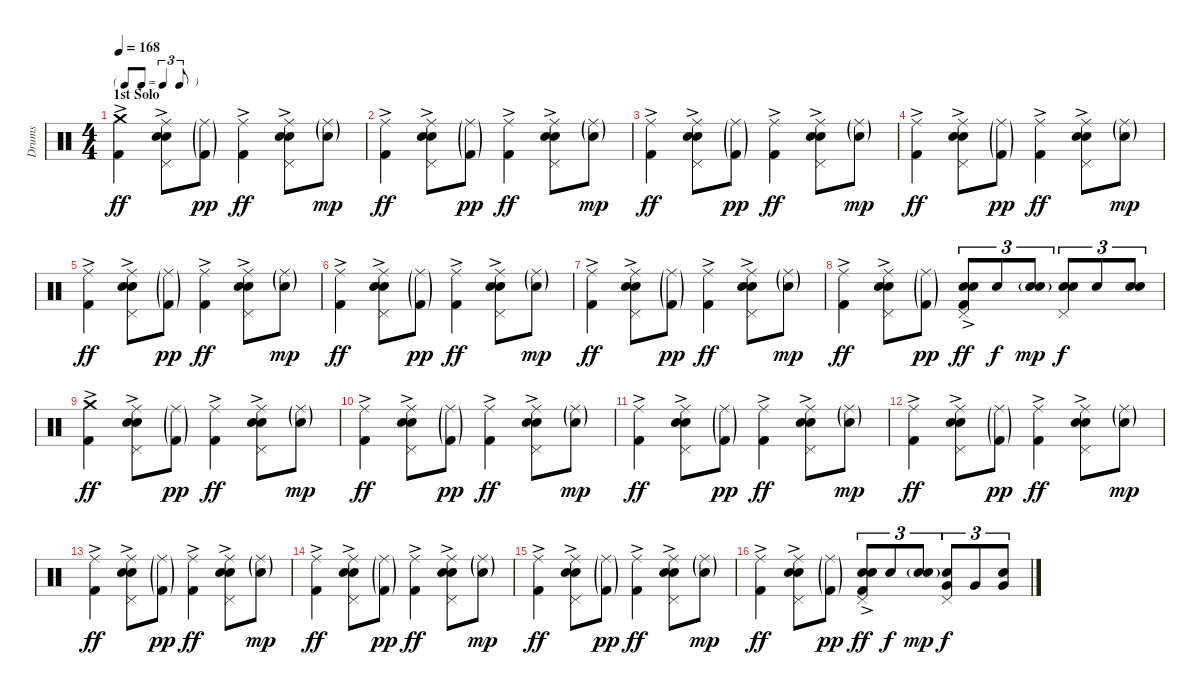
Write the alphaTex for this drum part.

\track ("Drums" "Drums") {instrument percussion}
\staff {score}
\articulation defaults
\ts (4 4)
\tf triplet8th
\section ("" "1st Solo")
\tempo 168
\clef neutral
\ks c
("Crash medium (hit)" "Kick (hit) 2"{ac}).4{dy ff} ("Ride (middle)" "Pedal Hi-Hat (hit)" "Electric Snare (hit)"{ac} "Snare (hit) 2").8 ("Ride (middle)"{g} "Kick (hit) 2"{g}).8{dy pp} ("Ride (middle)" "Kick (hit) 2"{ac}).4{dy ff} ("Ride (middle)" "Pedal Hi-Hat (hit)" "Electric Snare (hit)"{ac} "Snare (hit) 2").8 ("Ride (middle)"{g} "Snare (hit) 2"{g}).8{dy mp} |
("Ride (middle)" "Kick (hit) 2"{ac}).4{dy ff} ("Ride (middle)" "Pedal Hi-Hat (hit)" "Electric Snare (hit)"{ac} "Snare (hit) 2").8 ("Ride (middle)"{g} "Kick (hit) 2"{g}).8{dy pp} ("Ride (middle)" "Kick (hit) 2"{ac}).4{dy ff} ("Ride (middle)" "Pedal Hi-Hat (hit)" "Electric Snare (hit)"{ac} "Snare (hit) 2").8 ("Ride (middle)"{g} "Snare (hit) 2"{g}).8{dy mp} |
("Ride (middle)" "Kick (hit) 2"{ac}).4{dy ff} ("Ride (middle)" "Pedal Hi-Hat (hit)" "Electric Snare (hit)"{ac} "Snare (hit) 2").8 ("Ride (middle)"{g} "Kick (hit) 2"{g}).8{dy pp} ("Ride (middle)" "Kick (hit) 2"{ac}).4{dy ff} ("Ride (middle)" "Pedal Hi-Hat (hit)" "Electric Snare (hit)"{ac} "Snare (hit) 2").8 ("Ride (middle)"{g} "Snare (hit) 2"{g}).8{dy mp} |
("Ride (middle)" "Kick (hit) 2"{ac}).4{dy ff} ("Ride (middle)" "Pedal Hi-Hat (hit)" "Electric Snare (hit)"{ac} "Snare (hit) 2").8 ("Ride (middle)"{g} "Kick (hit) 2"{g}).8{dy pp} ("Ride (middle)" "Kick (hit) 2"{ac}).4{dy ff} ("Ride (middle)" "Pedal Hi-Hat (hit)" "Electric Snare (hit)"{ac} "Snare (hit) 2").8 ("Ride (middle)"{g} "Snare (hit) 2"{g}).8{dy mp} |
("Ride (middle)" "Kick (hit) 2"{ac}).4{dy ff} ("Ride (middle)" "Pedal Hi-Hat (hit)" "Electric Snare (hit)"{ac} "Snare (hit) 2").8 ("Ride (middle)"{g} "Kick (hit) 2"{g}).8{dy pp} ("Ride (middle)" "Kick (hit) 2"{ac}).4{dy ff} ("Ride (middle)" "Pedal Hi-Hat (hit)" "Electric Snare (hit)"{ac} "Snare (hit) 2").8 ("Ride (middle)"{g} "Snare (hit) 2"{g}).8{dy mp} |
("Ride (middle)" "Kick (hit) 2"{ac}).4{dy ff} ("Ride (middle)" "Pedal Hi-Hat (hit)" "Electric Snare (hit)"{ac} "Snare (hit) 2").8 ("Ride (middle)"{g} "Kick (hit) 2"{g}).8{dy pp} ("Ride (middle)" "Kick (hit) 2"{ac}).4{dy ff} ("Ride (middle)" "Pedal Hi-Hat (hit)" "Electric Snare (hit)"{ac} "Snare (hit) 2").8 ("Ride (middle)"{g} "Snare (hit) 2"{g}).8{dy mp} |
("Ride (middle)" "Kick (hit) 2"{ac}).4{dy ff} ("Ride (middle)" "Pedal Hi-Hat (hit)" "Electric Snare (hit)"{ac} "Snare (hit) 2").8 ("Ride (middle)"{g} "Kick (hit) 2"{g}).8{dy pp} ("Ride (middle)" "Kick (hit) 2"{ac}).4{dy ff} ("Ride (middle)" "Pedal Hi-Hat (hit)" "Electric Snare (hit)"{ac} "Snare (hit) 2").8 ("Ride (middle)"{g} "Snare (hit) 2"{g}).8{dy mp} |
("Ride (middle)" "Kick (hit) 2"{ac}).4{dy ff} ("Ride (middle)" "Pedal Hi-Hat (hit)" "Electric Snare (hit)"{ac} "Snare (hit) 2").8 ("Ride (middle)"{g} "Kick (hit) 2"{g}).8{dy pp} ("Pedal Hi-Hat (hit)" "Electric Snare (hit)" "Snare (hit) 2" "Kick (hit) 2"{ac}).8{tu (3 2) dy ff} "Snare (hit) 2".8{tu (3 2) dy f} ("Electric Snare (hit)"{g} "Snare (hit) 2").8{tu (3 2) dy mp} ("Pedal Hi-Hat (hit)" "Electric Snare (hit)" "Snare (hit) 2").8{tu (3 2) dy f} "Snare (hit) 2".8{tu (3 2)} ("Electric Snare (hit)" "Snare (hit) 2").8{tu (3 2)} |
("Crash medium (hit)" "Kick (hit) 2"{ac}).4{dy ff} ("Ride (middle)" "Pedal Hi-Hat (hit)" "Electric Snare (hit)"{ac} "Snare (hit) 2").8 ("Ride (middle)"{g} "Kick (hit) 2"{g}).8{dy pp} ("Ride (middle)" "Kick (hit) 2"{ac}).4{dy ff} ("Ride (middle)" "Pedal Hi-Hat (hit)" "Electric Snare (hit)"{ac} "Snare (hit) 2").8 ("Ride (middle)"{g} "Snare (hit) 2"{g}).8{dy mp} |
("Ride (middle)" "Kick (hit) 2"{ac}).4{dy ff} ("Ride (middle)" "Pedal Hi-Hat (hit)" "Electric Snare (hit)"{ac} "Snare (hit) 2").8 ("Ride (middle)"{g} "Kick (hit) 2"{g}).8{dy pp} ("Ride (middle)" "Kick (hit) 2"{ac}).4{dy ff} ("Ride (middle)" "Pedal Hi-Hat (hit)" "Electric Snare (hit)"{ac} "Snare (hit) 2").8 ("Ride (middle)"{g} "Snare (hit) 2"{g}).8{dy mp} |
("Ride (middle)" "Kick (hit) 2"{ac}).4{dy ff} ("Ride (middle)" "Pedal Hi-Hat (hit)" "Electric Snare (hit)"{ac} "Snare (hit) 2").8 ("Ride (middle)"{g} "Kick (hit) 2"{g}).8{dy pp} ("Ride (middle)" "Kick (hit) 2"{ac}).4{dy ff} ("Ride (middle)" "Pedal Hi-Hat (hit)" "Electric Snare (hit)"{ac} "Snare (hit) 2").8 ("Ride (middle)"{g} "Snare (hit) 2"{g}).8{dy mp} |
("Ride (middle)" "Kick (hit) 2"{ac}).4{dy ff} ("Ride (middle)" "Pedal Hi-Hat (hit)" "Electric Snare (hit)"{ac} "Snare (hit) 2").8 ("Ride (middle)"{g} "Kick (hit) 2"{g}).8{dy pp} ("Ride (middle)" "Kick (hit) 2"{ac}).4{dy ff} ("Ride (middle)" "Pedal Hi-Hat (hit)" "Electric Snare (hit)"{ac} "Snare (hit) 2").8 ("Ride (middle)"{g} "Snare (hit) 2"{g}).8{dy mp} |
("Ride (middle)" "Kick (hit) 2"{ac}).4{dy ff} ("Ride (middle)" "Pedal Hi-Hat (hit)" "Electric Snare (hit)"{ac} "Snare (hit) 2").8 ("Ride (middle)"{g} "Kick (hit) 2"{g}).8{dy pp} ("Ride (middle)" "Kick (hit) 2"{ac}).4{dy ff} ("Ride (middle)" "Pedal Hi-Hat (hit)" "Electric Snare (hit)"{ac} "Snare (hit) 2").8 ("Ride (middle)"{g} "Snare (hit) 2"{g}).8{dy mp} |
("Ride (middle)" "Kick (hit) 2"{ac}).4{dy ff} ("Ride (middle)" "Pedal Hi-Hat (hit)" "Electric Snare (hit)"{ac} "Snare (hit) 2").8 ("Ride (middle)"{g} "Kick (hit) 2"{g}).8{dy pp} ("Ride (middle)" "Kick (hit) 2"{ac}).4{dy ff} ("Ride (middle)" "Pedal Hi-Hat (hit)" "Electric Snare (hit)"{ac} "Snare (hit) 2").8 ("Ride (middle)"{g} "Snare (hit) 2"{g}).8{dy mp} |
("Ride (middle)" "Kick (hit) 2"{ac}).4{dy ff} ("Ride (middle)" "Pedal Hi-Hat (hit)" "Electric Snare (hit)"{ac} "Snare (hit) 2").8 ("Ride (middle)"{g} "Kick (hit) 2"{g}).8{dy pp} ("Ride (middle)" "Kick (hit) 2"{ac}).4{dy ff} ("Ride (middle)" "Pedal Hi-Hat (hit)" "Electric Snare (hit)"{ac} "Snare (hit) 2").8 ("Ride (middle)"{g} "Snare (hit) 2"{g}).8{dy mp} |
("Ride (middle)" "Kick (hit) 2"{ac}).4{dy ff} ("Ride (middle)" "Pedal Hi-Hat (hit)" "Electric Snare (hit)"{ac} "Snare (hit) 2").8 ("Ride (middle)"{g} "Kick (hit) 2"{g}).8{dy pp} ("Pedal Hi-Hat (hit)" "Electric Snare (hit)" "Snare (hit) 2" "Kick (hit) 2"{ac}).8{tu (3 2) dy ff} "Snare (hit) 2".8{tu (3 2) dy f} ("Electric Snare (hit)"{g} "Snare (hit) 2").8{tu (3 2) dy mp} ("Pedal Hi-Hat (hit)" "Electric Snare (hit)" "Very Low Tom (hit)").8{tu (3 2) dy f} "Very Low Tom (hit)".8{tu (3 2)} ("Electric Snare (hit)" "Very Low Tom (hit)").8{tu (3 2)}
